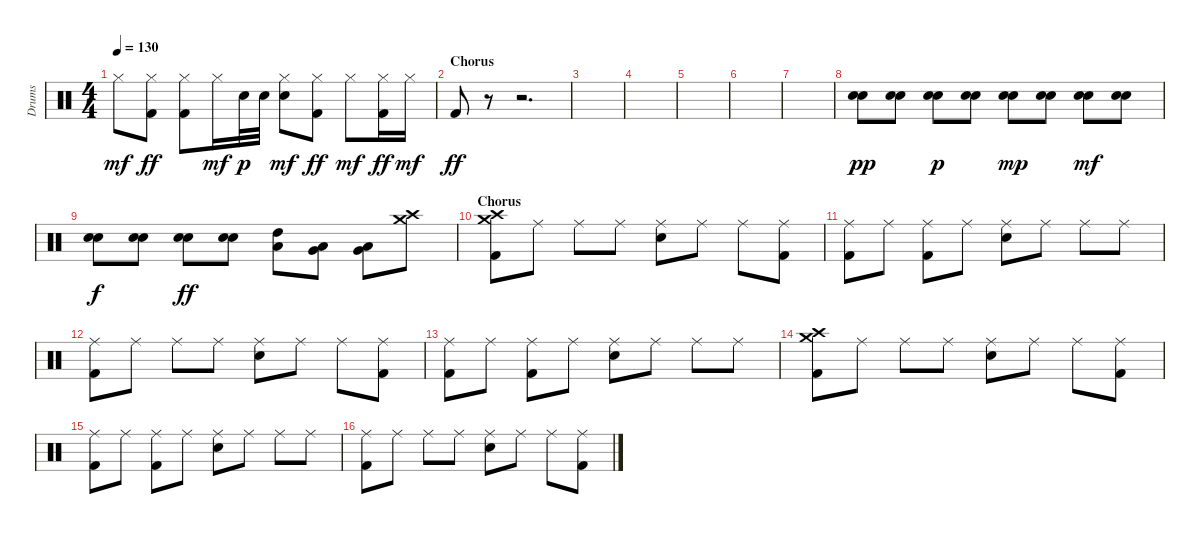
\track ("Drums" "Drums") {instrument percussion}
\staff {score}
\articulation defaults
\ts (4 4)
\tempo 130
\clef neutral
\ks c "Hi-Hat (closed)".8{dy mf}
("Hi-Hat (closed)" "Kick (hit) 2").8{dy ff} ("Hi-Hat (closed)" "Kick (hit) 2").8 "Hi-Hat (closed)".16{dy mf} "Snare (hit) 2".32{dy p} "Snare (hit) 2".32 ("Hi-Hat (closed)" "Snare (hit) 2").8{dy mf} ("Hi-Hat (closed)" "Kick (hit) 2").8{dy ff} "Hi-Hat (closed)".8{dy mf} ("Hi-Hat (closed)" "Kick (hit) 2").16{dy ff} "Hi-Hat (closed)".16{dy mf} |
\section ("" "Chorus")
"Kick (hit) 2".8{dy ff} r.8 r.2{d} |
|
|
|
|
|
("Snare (hit) 2" "Snare (hit) 2").8{dy pp volume 10} ("Snare (hit) 2" "Snare (hit) 2").8 ("Snare (hit) 2" "Snare (hit) 2").8{dy p} ("Snare (hit) 2" "Snare (hit) 2").8 ("Snare (hit) 2" "Snare (hit) 2").8{dy mp} ("Snare (hit) 2" "Snare (hit) 2").8 ("Snare (hit) 2" "Snare (hit) 2").8{dy mf} ("Snare (hit) 2" "Snare (hit) 2").8 |
("Snare (hit) 2" "Snare (hit) 2").8{dy f} ("Snare (hit) 2" "Snare (hit) 2").8 ("Snare (hit) 2" "Snare (hit) 2").8{dy ff} ("Snare (hit) 2" "Snare (hit) 2").8 ("Low Tom (hit)" "High Tom (hit)").8 ("Very Low Tom (hit)" "Low Tom (hit)").8 ("Low Floor Tom (hit)" "Very Low Tom (hit)").8 ("Crash high (hit)" "Crash medium (hit)").8 |
\section ("" "Chorus")
("Kick (hit) 2" "Crash medium (hit)" "Crash high (hit)").8 "Ride (middle)".8 "Ride (middle)".8 "Ride (middle)".8 ("Ride (middle)" "Snare (hit) 2").8 "Ride (middle)".8 "Ride (middle)".8 ("Ride (middle)" "Kick (hit) 2").8 |
("Ride (middle)" "Kick (hit) 2").8 "Ride (middle)".8 ("Ride (middle)" "Kick (hit) 2").8 "Ride (middle)".8 ("Ride (middle)" "Snare (hit) 2").8 "Ride (middle)".8 "Ride (middle)".8 "Ride (middle)".8 |
("Ride (middle)" "Kick (hit) 2").8 "Ride (middle)".8 "Ride (middle)".8 "Ride (middle)".8 ("Ride (middle)" "Snare (hit) 2").8 "Ride (middle)".8 "Ride (middle)".8 ("Ride (middle)" "Kick (hit) 2").8 |
("Ride (middle)" "Kick (hit) 2").8 "Ride (middle)".8 ("Ride (middle)" "Kick (hit) 2").8 "Ride (middle)".8 ("Ride (middle)" "Snare (hit) 2").8 "Ride (middle)".8 "Ride (middle)".8 "Ride (middle)".8 |
("Kick (hit) 2" "Crash medium (hit)" "Crash high (hit)").8 "Ride (middle)".8 "Ride (middle)".8 "Ride (middle)".8 ("Ride (middle)" "Snare (hit) 2").8 "Ride (middle)".8 "Ride (middle)".8 ("Ride (middle)" "Kick (hit) 2").8 |
("Ride (middle)" "Kick (hit) 2").8 "Ride (middle)".8 ("Ride (middle)" "Kick (hit) 2").8 "Ride (middle)".8 ("Ride (middle)" "Snare (hit) 2").8 "Ride (middle)".8 "Ride (middle)".8 "Ride (middle)".8 |
("Ride (middle)" "Kick (hit) 2").8 "Ride (middle)".8 "Ride (middle)".8 "Ride (middle)".8 ("Ride (middle)" "Snare (hit) 2").8 "Ride (middle)".8 "Ride (middle)".8 ("Ride (middle)" "Kick (hit) 2").8
